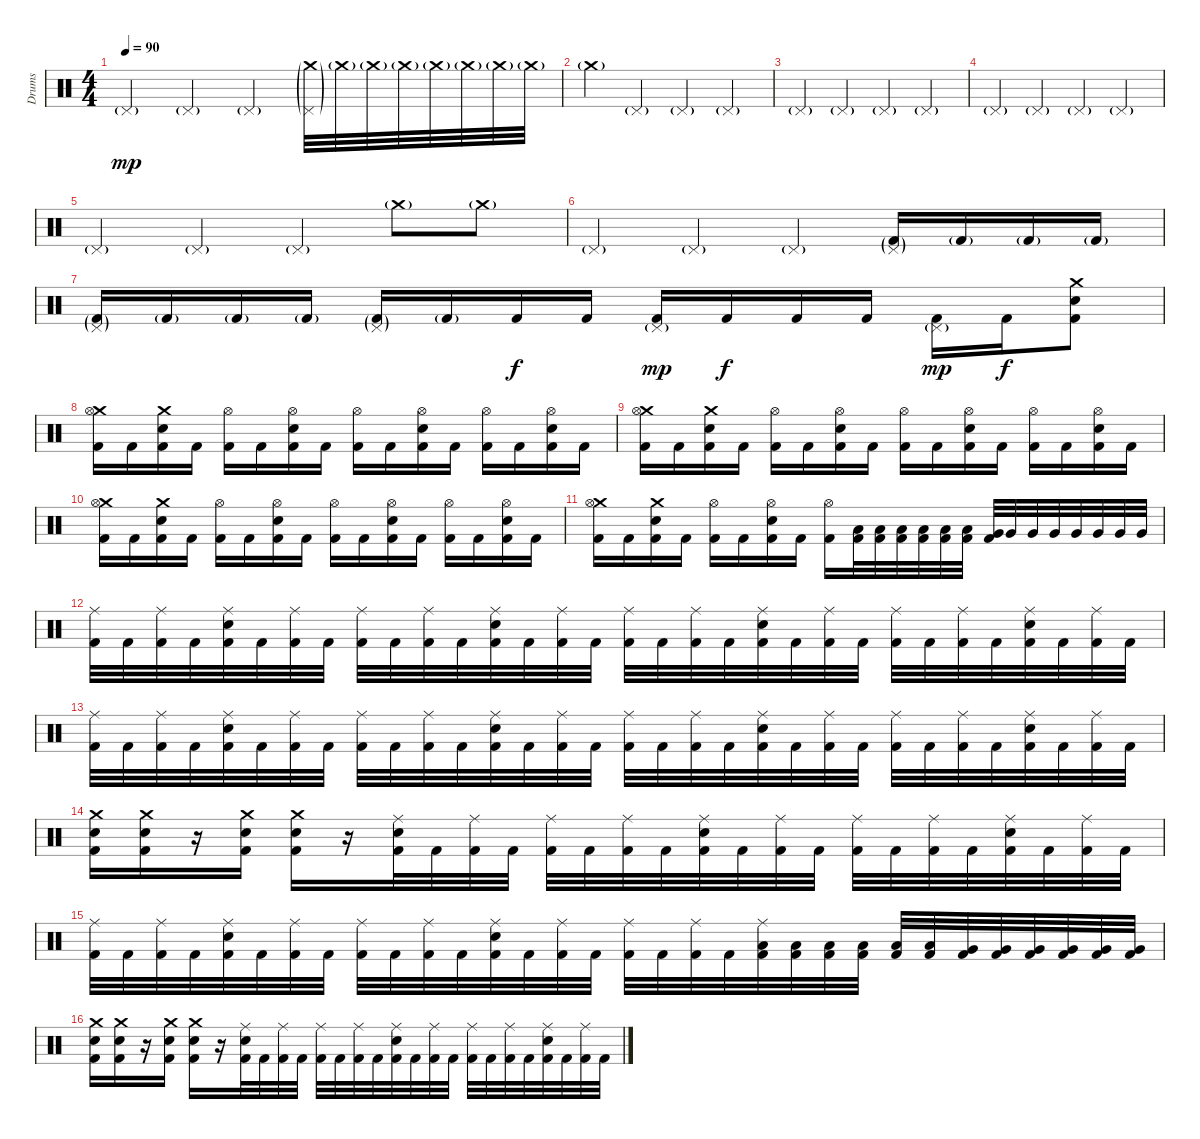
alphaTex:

\track ("Drums" "Drums") {instrument percussion}
\staff {score}
\articulation defaults
\ts (4 4)
\tempo 90
\clef neutral
\ks c "Pedal Hi-Hat (hit)"{g}.4{dy mp} "Pedal Hi-Hat (hit)"{g}.4 "Pedal Hi-Hat (hit)"{g}.4
("Pedal Hi-Hat (hit)"{g} "Crash medium (hit)"{g}).32 "Crash medium (hit)"{g}.32 "Crash medium (hit)"{g}.32 "Crash medium (hit)"{g}.32 "Crash medium (hit)"{g}.32 "Crash medium (hit)"{g}.32 "Crash medium (hit)"{g}.32 "Crash medium (hit)"{g}.32 |
"Crash medium (hit)"{g}.4 "Pedal Hi-Hat (hit)"{g}.4 "Pedal Hi-Hat (hit)"{g}.4 "Pedal Hi-Hat (hit)"{g}.4 |
"Pedal Hi-Hat (hit)"{g}.4 "Pedal Hi-Hat (hit)"{g}.4 "Pedal Hi-Hat (hit)"{g}.4 "Pedal Hi-Hat (hit)"{g}.4 |
"Pedal Hi-Hat (hit)"{g}.4 "Pedal Hi-Hat (hit)"{g}.4 "Pedal Hi-Hat (hit)"{g}.4 "Pedal Hi-Hat (hit)"{g}.4 |
"Pedal Hi-Hat (hit)"{g}.4 "Pedal Hi-Hat (hit)"{g}.4 "Pedal Hi-Hat (hit)"{g}.4 "Crash medium (hit)"{g}.8 "Crash medium (hit)"{g}.8 |
"Pedal Hi-Hat (hit)"{g}.4 "Pedal Hi-Hat (hit)"{g}.4 "Pedal Hi-Hat (hit)"{g}.4 ("Pedal Hi-Hat (hit)"{g} "Kick (hit) 2"{g}).16 "Kick (hit) 2"{g}.16 "Kick (hit) 2"{g}.16 "Kick (hit) 2"{g}.16 |
("Pedal Hi-Hat (hit)"{g} "Kick (hit) 2"{g}).16 "Kick (hit) 2"{g}.16 "Kick (hit) 2"{g}.16 "Kick (hit) 2"{g}.16 ("Pedal Hi-Hat (hit)"{g} "Kick (hit) 2"{g}).16 "Kick (hit) 2"{g}.16 "Kick (hit) 2".16{dy f} "Kick (hit) 2".16 ("Pedal Hi-Hat (hit)"{g} "Kick (hit) 2").16{dy mp} "Kick (hit) 2".16{dy f} "Kick (hit) 2".16 "Kick (hit) 2".16 ("Pedal Hi-Hat (hit)"{g} "Kick (hit) 2").16{dy mp} "Kick (hit) 2".16{dy f} ("Crash medium (hit)" "Electric Snare (hit)" "Kick (hit) 2").8 |
("Crash medium (hit)" "Hi-Hat (open)" "Kick (hit) 2").16 "Kick (hit) 2".16 ("Crash medium (hit)" "Electric Snare (hit)" "Kick (hit) 2").16 "Kick (hit) 2".16 ("Hi-Hat (open)" "Kick (hit) 2").16 "Kick (hit) 2".16 ("Hi-Hat (open)" "Electric Snare (hit)" "Kick (hit) 2").16 "Kick (hit) 2".16 ("Hi-Hat (open)" "Kick (hit) 2").16 "Kick (hit) 2".16 ("Hi-Hat (open)" "Electric Snare (hit)" "Kick (hit) 2").16 "Kick (hit) 2".16 ("Hi-Hat (open)" "Kick (hit) 2").16 "Kick (hit) 2".16 ("Hi-Hat (open)" "Electric Snare (hit)" "Kick (hit) 2").16 "Kick (hit) 2".16 |
("Crash medium (hit)" "Hi-Hat (open)" "Kick (hit) 2").16 "Kick (hit) 2".16 ("Crash medium (hit)" "Electric Snare (hit)" "Kick (hit) 2").16 "Kick (hit) 2".16 ("Hi-Hat (open)" "Kick (hit) 2").16 "Kick (hit) 2".16 ("Hi-Hat (open)" "Electric Snare (hit)" "Kick (hit) 2").16 "Kick (hit) 2".16 ("Hi-Hat (open)" "Kick (hit) 2").16 "Kick (hit) 2".16 ("Hi-Hat (open)" "Electric Snare (hit)" "Kick (hit) 2").16 "Kick (hit) 2".16 ("Hi-Hat (open)" "Kick (hit) 2").16 "Kick (hit) 2".16 ("Hi-Hat (open)" "Electric Snare (hit)" "Kick (hit) 2").16 "Kick (hit) 2".16 |
("Crash medium (hit)" "Hi-Hat (open)" "Kick (hit) 2").16 "Kick (hit) 2".16 ("Crash medium (hit)" "Electric Snare (hit)" "Kick (hit) 2").16 "Kick (hit) 2".16 ("Hi-Hat (open)" "Kick (hit) 2").16 "Kick (hit) 2".16 ("Hi-Hat (open)" "Electric Snare (hit)" "Kick (hit) 2").16 "Kick (hit) 2".16 ("Hi-Hat (open)" "Kick (hit) 2").16 "Kick (hit) 2".16 ("Hi-Hat (open)" "Electric Snare (hit)" "Kick (hit) 2").16 "Kick (hit) 2".16 ("Hi-Hat (open)" "Kick (hit) 2").16 "Kick (hit) 2".16 ("Hi-Hat (open)" "Electric Snare (hit)" "Kick (hit) 2").16 "Kick (hit) 2".16 |
("Crash medium (hit)" "Hi-Hat (open)" "Kick (hit) 2").16 "Kick (hit) 2".16 ("Crash medium (hit)" "Electric Snare (hit)" "Kick (hit) 2").16 "Kick (hit) 2".16 ("Hi-Hat (open)" "Kick (hit) 2").16 "Kick (hit) 2".16 ("Hi-Hat (open)" "Electric Snare (hit)" "Kick (hit) 2").16 "Kick (hit) 2".16 ("Hi-Hat (open)" "Kick (hit) 2").16 ("Low Tom (hit)" "Kick (hit) 2").32 ("Low Tom (hit)" "Kick (hit) 2").32 ("Low Tom (hit)" "Kick (hit) 2").32 ("Low Tom (hit)" "Kick (hit) 2").32 ("Low Tom (hit)" "Kick (hit) 2").32 ("Low Tom (hit)" "Kick (hit) 2").32 ("Very Low Tom (hit)" "Kick (hit) 2").32 "Very Low Tom (hit)".32 "Very Low Tom (hit)".32 "Very Low Tom (hit)".32 "Very Low Tom (hit)".32 "Very Low Tom (hit)".32 "Very Low Tom (hit)".32 "Very Low Tom (hit)".32 |
("Ride (middle)" "Kick (hit) 2").32 "Kick (hit) 2".32 ("Ride (middle)" "Kick (hit) 2").32 "Kick (hit) 2".32 ("Ride (middle)" "Electric Snare (hit)" "Kick (hit) 2").32 "Kick (hit) 2".32 ("Ride (middle)" "Kick (hit) 2").32 "Kick (hit) 2".32 ("Ride (middle)" "Kick (hit) 2").32 "Kick (hit) 2".32 ("Ride (middle)" "Kick (hit) 2").32 "Kick (hit) 2".32 ("Ride (middle)" "Electric Snare (hit)" "Kick (hit) 2").32 "Kick (hit) 2".32 ("Ride (middle)" "Kick (hit) 2").32 "Kick (hit) 2".32 ("Ride (middle)" "Kick (hit) 2").32 "Kick (hit) 2".32 ("Ride (middle)" "Kick (hit) 2").32 "Kick (hit) 2".32 ("Ride (middle)" "Electric Snare (hit)" "Kick (hit) 2").32 "Kick (hit) 2".32 ("Ride (middle)" "Kick (hit) 2").32 "Kick (hit) 2".32 ("Ride (middle)" "Kick (hit) 2").32 "Kick (hit) 2".32 ("Ride (middle)" "Kick (hit) 2").32 "Kick (hit) 2".32 ("Ride (middle)" "Electric Snare (hit)" "Kick (hit) 2").32 "Kick (hit) 2".32 ("Ride (middle)" "Kick (hit) 2").32 "Kick (hit) 2".32 |
("Ride (middle)" "Kick (hit) 2").32 "Kick (hit) 2".32 ("Ride (middle)" "Kick (hit) 2").32 "Kick (hit) 2".32 ("Ride (middle)" "Electric Snare (hit)" "Kick (hit) 2").32 "Kick (hit) 2".32 ("Ride (middle)" "Kick (hit) 2").32 "Kick (hit) 2".32 ("Ride (middle)" "Kick (hit) 2").32 "Kick (hit) 2".32 ("Ride (middle)" "Kick (hit) 2").32 "Kick (hit) 2".32 ("Ride (middle)" "Electric Snare (hit)" "Kick (hit) 2").32 "Kick (hit) 2".32 ("Ride (middle)" "Kick (hit) 2").32 "Kick (hit) 2".32 ("Ride (middle)" "Kick (hit) 2").32 "Kick (hit) 2".32 ("Ride (middle)" "Kick (hit) 2").32 "Kick (hit) 2".32 ("Ride (middle)" "Electric Snare (hit)" "Kick (hit) 2").32 "Kick (hit) 2".32 ("Ride (middle)" "Kick (hit) 2").32 "Kick (hit) 2".32 ("Ride (middle)" "Kick (hit) 2").32 "Kick (hit) 2".32 ("Ride (middle)" "Kick (hit) 2").32 "Kick (hit) 2".32 ("Ride (middle)" "Electric Snare (hit)" "Kick (hit) 2").32 "Kick (hit) 2".32 ("Ride (middle)" "Kick (hit) 2").32 "Kick (hit) 2".32 |
("Crash medium (hit)" "Electric Snare (hit)" "Kick (hit) 2").16 ("Crash medium (hit)" "Electric Snare (hit)" "Kick (hit) 2").16 r.16 ("Crash medium (hit)" "Electric Snare (hit)" "Kick (hit) 2").16 ("Crash medium (hit)" "Electric Snare (hit)" "Kick (hit) 2").16 r.16 ("Ride (middle)" "Electric Snare (hit)" "Kick (hit) 2").32 "Kick (hit) 2".32 ("Ride (middle)" "Kick (hit) 2").32 "Kick (hit) 2".32 ("Ride (middle)" "Kick (hit) 2").32 "Kick (hit) 2".32 ("Ride (middle)" "Kick (hit) 2").32 "Kick (hit) 2".32 ("Ride (middle)" "Electric Snare (hit)" "Kick (hit) 2").32 "Kick (hit) 2".32 ("Ride (middle)" "Kick (hit) 2").32 "Kick (hit) 2".32 ("Ride (middle)" "Kick (hit) 2").32 "Kick (hit) 2".32 ("Ride (middle)" "Kick (hit) 2").32 "Kick (hit) 2".32 ("Ride (middle)" "Electric Snare (hit)" "Kick (hit) 2").32 "Kick (hit) 2".32 ("Ride (middle)" "Kick (hit) 2").32 "Kick (hit) 2".32 |
("Ride (middle)" "Kick (hit) 2").32 "Kick (hit) 2".32 ("Ride (middle)" "Kick (hit) 2").32 "Kick (hit) 2".32 ("Ride (middle)" "Electric Snare (hit)" "Kick (hit) 2").32 "Kick (hit) 2".32 ("Ride (middle)" "Kick (hit) 2").32 "Kick (hit) 2".32 ("Ride (middle)" "Kick (hit) 2").32 "Kick (hit) 2".32 ("Ride (middle)" "Kick (hit) 2").32 "Kick (hit) 2".32 ("Ride (middle)" "Electric Snare (hit)" "Kick (hit) 2").32 "Kick (hit) 2".32 ("Ride (middle)" "Kick (hit) 2").32 "Kick (hit) 2".32 ("Ride (middle)" "Kick (hit) 2").32 "Kick (hit) 2".32 ("Ride (middle)" "Kick (hit) 2").32 "Kick (hit) 2".32 ("Ride (middle)" "Low Tom (hit)" "Kick (hit) 2").32 ("Low Tom (hit)" "Kick (hit) 2").32 ("Low Tom (hit)" "Kick (hit) 2").32 ("Low Tom (hit)" "Kick (hit) 2").32 ("Low Tom (hit)" "Kick (hit) 2").32 ("Low Tom (hit)" "Kick (hit) 2").32 ("Very Low Tom (hit)" "Kick (hit) 2").32 ("Very Low Tom (hit)" "Kick (hit) 2").32 ("Very Low Tom (hit)" "Kick (hit) 2").32 ("Very Low Tom (hit)" "Kick (hit) 2").32 ("Very Low Tom (hit)" "Kick (hit) 2").32 ("Very Low Tom (hit)" "Kick (hit) 2").32 |
("Crash medium (hit)" "Electric Snare (hit)" "Kick (hit) 2").16 ("Crash medium (hit)" "Electric Snare (hit)" "Kick (hit) 2").16 r.16 ("Crash medium (hit)" "Electric Snare (hit)" "Kick (hit) 2").16 ("Crash medium (hit)" "Electric Snare (hit)" "Kick (hit) 2").16 r.16 ("Ride (middle)" "Electric Snare (hit)" "Kick (hit) 2").32 "Kick (hit) 2".32 ("Ride (middle)" "Kick (hit) 2").32 "Kick (hit) 2".32 ("Ride (middle)" "Kick (hit) 2").32 "Kick (hit) 2".32 ("Ride (middle)" "Kick (hit) 2").32 "Kick (hit) 2".32 ("Ride (middle)" "Electric Snare (hit)" "Kick (hit) 2").32 "Kick (hit) 2".32 ("Ride (middle)" "Kick (hit) 2").32 "Kick (hit) 2".32 ("Ride (middle)" "Kick (hit) 2").32 "Kick (hit) 2".32 ("Ride (middle)" "Kick (hit) 2").32 "Kick (hit) 2".32 ("Ride (middle)" "Electric Snare (hit)" "Kick (hit) 2").32 "Kick (hit) 2".32 ("Ride (middle)" "Kick (hit) 2").32 "Kick (hit) 2".32
